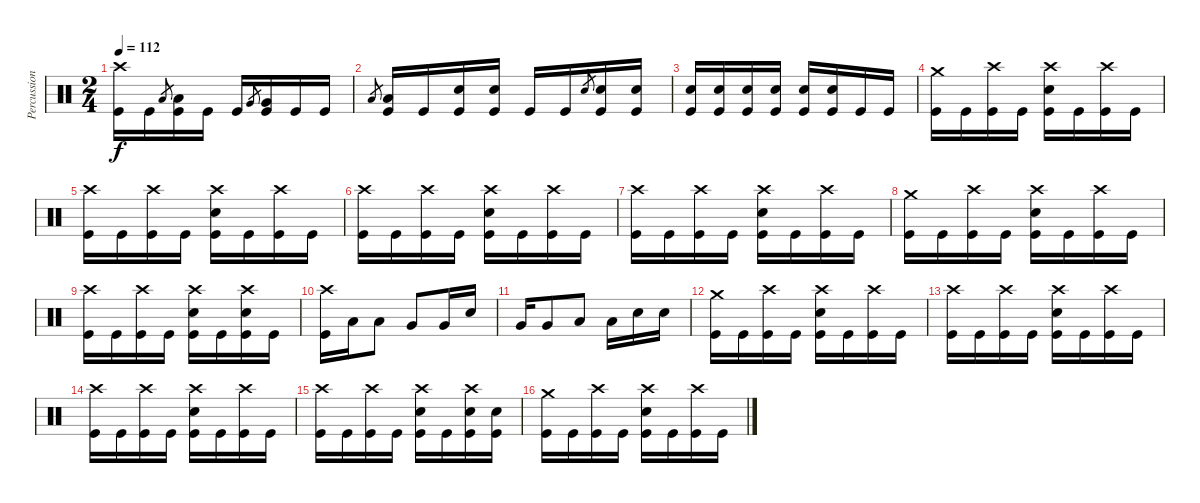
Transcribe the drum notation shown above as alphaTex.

\track ("Percussion" "Percussion") {instrument percussion}
\staff {score}
\articulation defaults
\ts (2 4)
\tempo 112
\clef neutral
\ks c
("Crash high (hit)" "Kick (hit)").16{dy f} "Kick (hit)".16 "Low Tom (hit)".8{gr} ("Low Tom (hit)" "Kick (hit)").16 "Kick (hit)".16 "Kick (hit)".16 "Very Low Tom (hit)".8{gr} ("Very Low Tom (hit)" "Kick (hit)").16 "Kick (hit)".16 "Kick (hit)".16 |
"Low Floor Tom (hit)".8{gr} ("Low Floor Tom (hit)" "Kick (hit)").16 "Kick (hit)".16 ("Electric Snare (hit)" "Kick (hit)").16 ("Electric Snare (hit)" "Kick (hit)").16 "Kick (hit)".16 "Kick (hit)".16 "Electric Snare (hit)".8{gr} ("Electric Snare (hit)" "Kick (hit)").16 ("Electric Snare (hit)" "Kick (hit)").16 |
("Electric Snare (hit)" "Kick (hit)").16 ("Electric Snare (hit)" "Kick (hit)").16 ("Electric Snare (hit)" "Kick (hit)").16 ("Electric Snare (hit)" "Kick (hit)").16 ("Electric Snare (hit)" "Kick (hit)").16 ("Electric Snare (hit)" "Kick (hit)").16 "Kick (hit)".16 "Kick (hit)".16 |
("Crash medium (hit)" "Kick (hit)").16 "Kick (hit)".16 ("Crash high (hit)" "Kick (hit)").16 "Kick (hit)".16 ("Crash high (hit)" "Electric Snare (hit)" "Kick (hit)").16 "Kick (hit)".16 ("Crash high (hit)" "Kick (hit)").16 "Kick (hit)".16 |
("Crash high (hit)" "Kick (hit)").16 "Kick (hit)".16 ("Crash high (hit)" "Kick (hit)").16 "Kick (hit)".16 ("Crash high (hit)" "Electric Snare (hit)" "Kick (hit)").16 "Kick (hit)".16 ("Crash high (hit)" "Kick (hit)").16 "Kick (hit)".16 |
("Crash high (hit)" "Kick (hit)").16 "Kick (hit)".16 ("Crash high (hit)" "Kick (hit)").16 "Kick (hit)".16 ("Crash high (hit)" "Electric Snare (hit)" "Kick (hit)").16 "Kick (hit)".16 ("Crash high (hit)" "Kick (hit)").16 "Kick (hit)".16 |
("Crash high (hit)" "Kick (hit)").16 "Kick (hit)".16 ("Crash high (hit)" "Kick (hit)").16 "Kick (hit)".16 ("Crash high (hit)" "Electric Snare (hit)" "Kick (hit)").16 "Kick (hit)".16 ("Crash high (hit)" "Kick (hit)").16 "Kick (hit)".16 |
("Crash medium (hit)" "Kick (hit)").16 "Kick (hit)".16 ("Crash high (hit)" "Kick (hit)").16 "Kick (hit)".16 ("Crash high (hit)" "Electric Snare (hit)" "Kick (hit)").16 "Kick (hit)".16 ("Crash high (hit)" "Kick (hit)").16 "Kick (hit)".16 |
("Crash high (hit)" "Kick (hit)").16 "Kick (hit)".16 ("Crash high (hit)" "Kick (hit)").16 "Kick (hit)".16 ("Crash high (hit)" "Electric Snare (hit)" "Kick (hit)").16 "Kick (hit)".16 ("Crash high (hit)" "Electric Snare (hit)" "Kick (hit)").16 "Kick (hit)".16 |
("Crash high (hit)" "Kick (hit)").16 "Low Tom (hit)".16 "Low Tom (hit)".8 "Very Low Tom (hit)".8 "Very Low Tom (hit)".16 "Electric Snare (hit)".16 |
"Very Low Tom (hit)".16 "Very Low Tom (hit)".8 "Low Floor Tom (hit)".8 "Low Floor Tom (hit)".16 "Electric Snare (hit)".16 "Electric Snare (hit)".16 |
("Crash medium (hit)" "Kick (hit)").16 "Kick (hit)".16 ("Crash high (hit)" "Kick (hit)").16 "Kick (hit)".16 ("Crash high (hit)" "Electric Snare (hit)" "Kick (hit)").16 "Kick (hit)".16 ("Crash high (hit)" "Kick (hit)").16 "Kick (hit)".16 |
("Crash high (hit)" "Kick (hit)").16 "Kick (hit)".16 ("Crash high (hit)" "Kick (hit)").16 "Kick (hit)".16 ("Crash high (hit)" "Electric Snare (hit)" "Kick (hit)").16 "Kick (hit)".16 ("Crash high (hit)" "Kick (hit)").16 "Kick (hit)".16 |
("Crash high (hit)" "Kick (hit)").16 "Kick (hit)".16 ("Crash high (hit)" "Kick (hit)").16 "Kick (hit)".16 ("Crash high (hit)" "Electric Snare (hit)" "Kick (hit)").16 "Kick (hit)".16 ("Crash high (hit)" "Kick (hit)").16 "Kick (hit)".16 |
("Crash high (hit)" "Kick (hit)").16 "Kick (hit)".16 ("Crash high (hit)" "Kick (hit)").16 "Kick (hit)".16 ("Crash high (hit)" "Electric Snare (hit)" "Kick (hit)").16 "Kick (hit)".16 ("Crash high (hit)" "Electric Snare (hit)" "Kick (hit)").16 ("Electric Snare (hit)" "Kick (hit)").16 |
("Crash medium (hit)" "Kick (hit)").16 "Kick (hit)".16 ("Crash high (hit)" "Kick (hit)").16 "Kick (hit)".16 ("Crash high (hit)" "Electric Snare (hit)" "Kick (hit)").16 "Kick (hit)".16 ("Crash high (hit)" "Kick (hit)").16 "Kick (hit)".16
